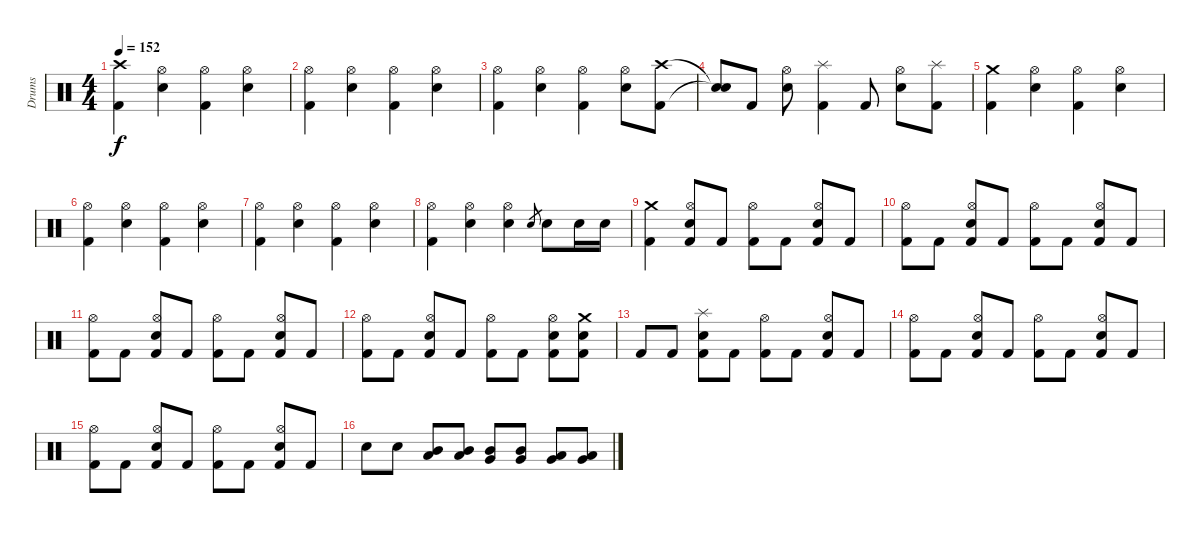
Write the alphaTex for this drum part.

\track ("Drums" "Drums") {instrument percussion}
\staff {score}
\articulation defaults
\ts (4 4)
\tempo 152
\clef neutral
\ks c
("Crash high (hit)" "Kick (hit) 2").4{dy f} ("Hi-Hat (open)" "Snare (hit) 2").4 ("Hi-Hat (open)" "Kick (hit) 2").4 ("Hi-Hat (open)" "Snare (hit) 2").4 |
("Hi-Hat (open)" "Kick (hit) 2").4 ("Hi-Hat (open)" "Snare (hit) 2").4 ("Hi-Hat (open)" "Kick (hit) 2").4 ("Hi-Hat (open)" "Snare (hit) 2").4 |
("Hi-Hat (open)" "Kick (hit) 2").4 ("Hi-Hat (open)" "Snare (hit) 2").4 ("Hi-Hat (open)" "Kick (hit) 2").4 ("Hi-Hat (open)" "Snare (hit) 2").8 ("Crash high (hit)" "Kick (hit) 2").8 |
("Snare (hit)"{t} "Snare (hit)"{t}).8 "Kick (hit) 2".8 ("Hi-Hat (open)" "Snare (hit) 2").8 ("Splash (hit)" "Kick (hit) 2").4 "Kick (hit) 2".8 ("Hi-Hat (open)" "Snare (hit) 2").8 ("Splash (hit)" "Kick (hit) 2").8 |
("Crash medium (hit)" "Kick (hit) 2").4 ("Hi-Hat (open)" "Snare (hit) 2").4 ("Hi-Hat (open)" "Kick (hit) 2").4 ("Hi-Hat (open)" "Snare (hit) 2").4 |
("Hi-Hat (open)" "Kick (hit) 2").4 ("Hi-Hat (open)" "Snare (hit) 2").4 ("Hi-Hat (open)" "Kick (hit) 2").4 ("Hi-Hat (open)" "Snare (hit) 2").4 |
("Hi-Hat (open)" "Kick (hit) 2").4 ("Hi-Hat (open)" "Snare (hit) 2").4 ("Hi-Hat (open)" "Kick (hit) 2").4 ("Hi-Hat (open)" "Snare (hit) 2").4 |
("Hi-Hat (open)" "Kick (hit) 2").4 ("Hi-Hat (open)" "Snare (hit) 2").4 ("Hi-Hat (open)" "Snare (hit) 2").4 "Snare (hit) 2".8{gr} "Snare (hit) 2".8 "Snare (hit) 2".16 "Snare (hit) 2".16 |
("Crash medium (hit)" "Kick (hit) 2").4 ("Hi-Hat (open)" "Snare (hit) 2" "Kick (hit) 2").8 "Kick (hit) 2".8 ("Hi-Hat (open)" "Kick (hit) 2").8 "Kick (hit) 2".8 ("Hi-Hat (open)" "Snare (hit) 2" "Kick (hit) 2").8 "Kick (hit) 2".8 |
("Hi-Hat (open)" "Kick (hit) 2").8 "Kick (hit) 2".8 ("Hi-Hat (open)" "Snare (hit) 2" "Kick (hit) 2").8 "Kick (hit) 2".8 ("Hi-Hat (open)" "Kick (hit) 2").8 "Kick (hit) 2".8 ("Hi-Hat (open)" "Snare (hit) 2" "Kick (hit) 2").8 "Kick (hit) 2".8 |
("Hi-Hat (open)" "Kick (hit) 2").8 "Kick (hit) 2".8 ("Hi-Hat (open)" "Snare (hit) 2" "Kick (hit) 2").8 "Kick (hit) 2".8 ("Hi-Hat (open)" "Kick (hit) 2").8 "Kick (hit) 2".8 ("Hi-Hat (open)" "Snare (hit) 2" "Kick (hit) 2").8 "Kick (hit) 2".8 |
("Hi-Hat (open)" "Kick (hit) 2").8 "Kick (hit) 2".8 ("Hi-Hat (open)" "Snare (hit) 2" "Kick (hit) 2").8 "Kick (hit) 2".8 ("Hi-Hat (open)" "Kick (hit) 2").8 "Kick (hit) 2".8 ("Hi-Hat (open)" "Snare (hit) 2" "Kick (hit) 2").8 ("Crash medium (hit)" "Snare (hit) 2" "Kick (hit) 2").8 |
"Kick (hit) 2".8 "Kick (hit) 2".8 ("Splash (hit)" "Snare (hit) 2" "Kick (hit) 2").8 "Kick (hit) 2".8 ("Hi-Hat (open)" "Kick (hit) 2").8 "Kick (hit) 2".8 ("Hi-Hat (open)" "Snare (hit) 2" "Kick (hit) 2").8 "Kick (hit) 2".8 |
("Hi-Hat (open)" "Kick (hit) 2").8 "Kick (hit) 2".8 ("Hi-Hat (open)" "Snare (hit) 2" "Kick (hit) 2").8 "Kick (hit) 2".8 ("Hi-Hat (open)" "Kick (hit) 2").8 "Kick (hit) 2".8 ("Hi-Hat (open)" "Snare (hit) 2" "Kick (hit) 2").8 "Kick (hit) 2".8 |
("Hi-Hat (open)" "Kick (hit) 2").8 "Kick (hit) 2".8 ("Hi-Hat (open)" "Snare (hit) 2" "Kick (hit) 2").8 "Kick (hit) 2".8 ("Hi-Hat (open)" "Kick (hit) 2").8 "Kick (hit) 2".8 ("Hi-Hat (open)" "Snare (hit) 2" "Kick (hit) 2").8 "Kick (hit) 2".8 |
"Snare (hit) 2".8 "Snare (hit) 2".8 ("Mid Tom (hit)" "Low Tom (hit)").8 ("Mid Tom (hit)" "Low Tom (hit)").8 ("Mid Tom (hit)" "Very Low Tom (hit)").8 ("Mid Tom (hit)" "Very Low Tom (hit)").8 ("Low Tom (hit)" "Very Low Tom (hit)").8 ("Low Tom (hit)" "Very Low Tom (hit)").8
